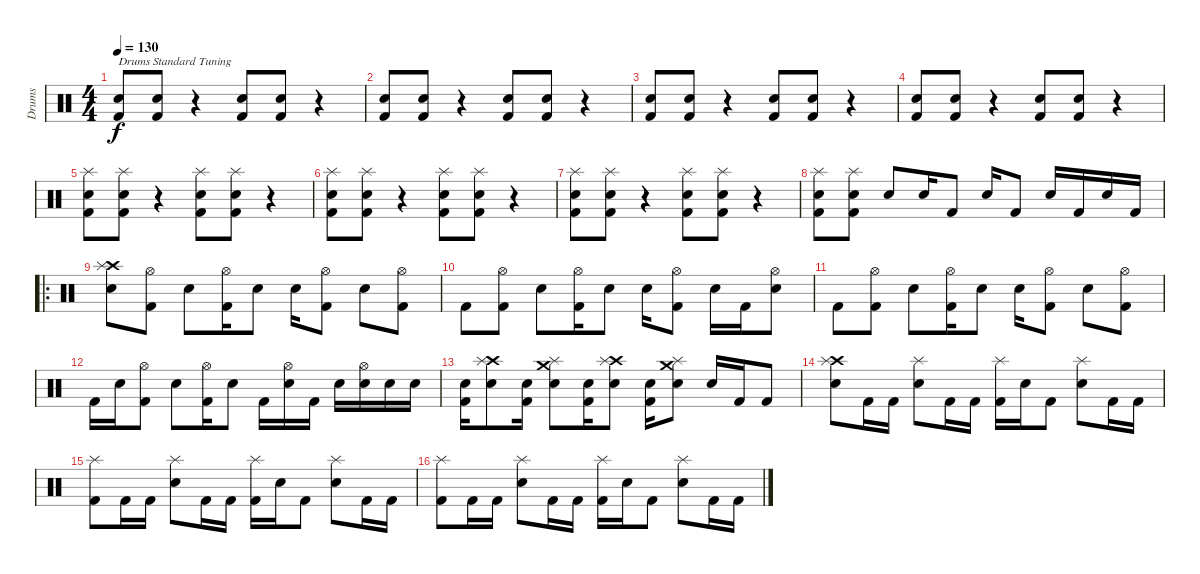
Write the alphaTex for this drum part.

\track ("Drums" "Drums") {instrument percussion}
\staff {score}
\articulation defaults
\ts (4 4)
\tempo 130
\clef neutral
\ks c
("Snare (hit) 2" "Kick (hit) 2").8{txt "Drums Standard Tuning" dy f} ("Snare (hit) 2" "Kick (hit) 2").8 r.4 ("Snare (hit) 2" "Kick (hit) 2").8 ("Snare (hit) 2" "Kick (hit) 2").8 r.4 |
("Snare (hit) 2" "Kick (hit) 2").8 ("Snare (hit) 2" "Kick (hit) 2").8 r.4 ("Snare (hit) 2" "Kick (hit) 2").8 ("Snare (hit) 2" "Kick (hit) 2").8 r.4 |
("Snare (hit) 2" "Kick (hit) 2").8 ("Snare (hit) 2" "Kick (hit) 2").8 r.4 ("Snare (hit) 2" "Kick (hit) 2").8 ("Snare (hit) 2" "Kick (hit) 2").8 r.4 |
("Snare (hit) 2" "Kick (hit) 2").8 ("Snare (hit) 2" "Kick (hit) 2").8 r.4 ("Snare (hit) 2" "Kick (hit) 2").8 ("Snare (hit) 2" "Kick (hit) 2").8 r.4 |
("Splash (hit)" "Snare (hit) 2" "Kick (hit) 2").8 ("Splash (hit)" "Snare (hit) 2" "Kick (hit) 2").8 r.4 ("Splash (hit)" "Snare (hit) 2" "Kick (hit) 2").8 ("Splash (hit)" "Snare (hit) 2" "Kick (hit) 2").8 r.4 |
("Splash (hit)" "Snare (hit) 2" "Kick (hit) 2").8 ("Splash (hit)" "Snare (hit) 2" "Kick (hit) 2").8 r.4 ("Splash (hit)" "Snare (hit) 2" "Kick (hit) 2").8 ("Splash (hit)" "Snare (hit) 2" "Kick (hit) 2").8 r.4 |
("Splash (hit)" "Snare (hit) 2" "Kick (hit) 2").8 ("Splash (hit)" "Snare (hit) 2" "Kick (hit) 2").8 r.4 ("Splash (hit)" "Snare (hit) 2" "Kick (hit) 2").8 ("Splash (hit)" "Snare (hit) 2" "Kick (hit) 2").8 r.4 |
("Splash (hit)" "Snare (hit) 2" "Kick (hit) 2").8 ("Splash (hit)" "Snare (hit) 2" "Kick (hit) 2").8 "Snare (hit) 2".8 "Snare (hit) 2".16 "Kick (hit) 2".8 "Snare (hit) 2".16 "Kick (hit) 2".8 "Snare (hit) 2".16 "Kick (hit) 2".16 "Snare (hit) 2".16 "Kick (hit) 2".16 |
\ro
("Crash high (hit)" "Splash (hit)" "Snare (hit) 2").8 ("Hi-Hat (open)" "Kick (hit) 2").8 "Snare (hit) 2".8 ("Hi-Hat (open)" "Kick (hit) 2").16 "Snare (hit) 2".8 "Snare (hit) 2".16 ("Hi-Hat (open)" "Kick (hit) 2").8 "Snare (hit) 2".8 ("Hi-Hat (open)" "Kick (hit) 2").8 |
"Kick (hit) 2".8 ("Hi-Hat (open)" "Kick (hit) 2").8 "Snare (hit) 2".8 ("Hi-Hat (open)" "Kick (hit) 2").16 "Snare (hit) 2".8 "Snare (hit) 2".16 ("Hi-Hat (open)" "Kick (hit) 2").8 "Snare (hit) 2".16 "Kick (hit) 2".16 ("Hi-Hat (open)" "Snare (hit) 2").8 |
"Kick (hit) 2".8 ("Hi-Hat (open)" "Kick (hit) 2").8 "Snare (hit) 2".8 ("Hi-Hat (open)" "Kick (hit) 2").16 "Snare (hit) 2".8 "Snare (hit) 2".16 ("Hi-Hat (open)" "Kick (hit) 2").8 "Snare (hit) 2".8 ("Hi-Hat (open)" "Kick (hit) 2").8 |
"Kick (hit) 2".16 "Snare (hit) 2".16 ("Hi-Hat (open)" "Kick (hit) 2").8 "Snare (hit) 2".8 ("Hi-Hat (open)" "Kick (hit) 2").16 "Snare (hit) 2".8 "Kick (hit) 2".16 ("Hi-Hat (open)" "Snare (hit) 2").16 "Kick (hit) 2".16 "Snare (hit) 2".16 ("Hi-Hat (open)" "Snare (hit) 2").16 "Snare (hit) 2".16 "Snare (hit) 2".16 |
("Snare (hit) 2" "Kick (hit) 2").16 ("Crash high (hit)" "Splash (hit)" "Snare (hit) 2").8 ("Snare (hit) 2" "Kick (hit) 2").16 ("Crash medium (hit)" "Splash (hit)" "Snare (hit) 2").8 ("Snare (hit) 2" "Kick (hit) 2").16 ("Crash high (hit)" "Splash (hit)" "Snare (hit) 2").8 ("Snare (hit) 2" "Kick (hit) 2").16 ("Crash medium (hit)" "Splash (hit)" "Snare (hit) 2").8 "Snare (hit) 2".16 "Kick (hit) 2".16 "Kick (hit) 2".8 |
("Crash high (hit)" "Splash (hit)" "Snare (hit) 2").8 "Kick (hit) 2".16 "Kick (hit) 2".16 ("Splash (hit)" "Snare (hit) 2").8 "Kick (hit) 2".16 "Kick (hit) 2".16 ("Splash (hit)" "Kick (hit) 2").16 "Snare (hit) 2".16 "Kick (hit) 2".8 ("Splash (hit)" "Snare (hit) 2").8 "Kick (hit) 2".16 "Kick (hit) 2".16 |
("Splash (hit)" "Kick (hit) 2").8 "Kick (hit) 2".16 "Kick (hit) 2".16 ("Splash (hit)" "Snare (hit) 2").8 "Kick (hit) 2".16 "Kick (hit) 2".16 ("Splash (hit)" "Kick (hit) 2").16 "Snare (hit) 2".16 "Kick (hit) 2".8 ("Splash (hit)" "Snare (hit) 2").8 "Kick (hit) 2".16 "Kick (hit) 2".16 |
("Splash (hit)" "Kick (hit) 2").8 "Kick (hit) 2".16 "Kick (hit) 2".16 ("Splash (hit)" "Snare (hit) 2").8 "Kick (hit) 2".16 "Kick (hit) 2".16 ("Splash (hit)" "Kick (hit) 2").16 "Snare (hit) 2".16 "Kick (hit) 2".8 ("Splash (hit)" "Snare (hit) 2").8 "Kick (hit) 2".16 "Kick (hit) 2".16
